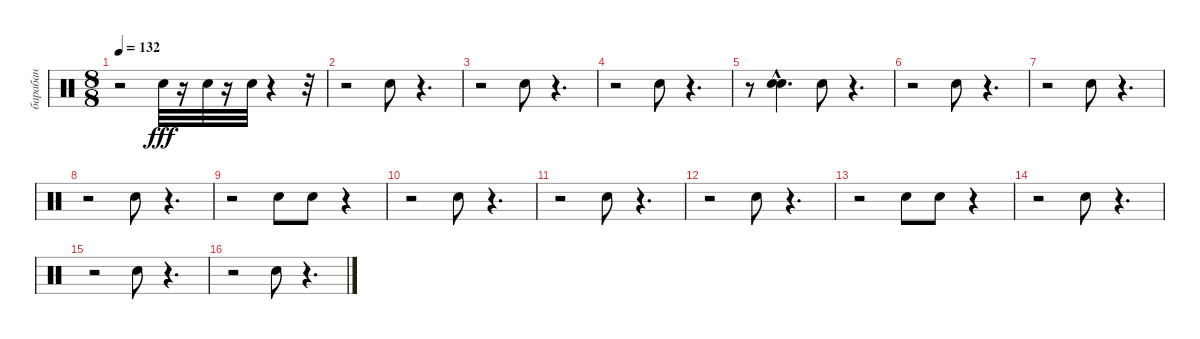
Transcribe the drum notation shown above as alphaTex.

\track ("барабан" "барабан") {instrument percussion}
\staff {score}
\articulation defaults
\ts (8 8)
\tempo 132
\clef neutral
\ks c
r.2{dy fff} "Snare (hit) 2".32 r.16 "Snare (hit) 2".32 r.16 "Snare (hit) 2".32 r.4 r.32 |
r.2 "Snare (hit) 2".8 r.4{d} |
r.2 "Snare (hit) 2".8 r.4{d} |
r.2 "Snare (hit) 2".8 r.4{d} |
r.8 ("Snare (hit) 2"{hac} "Snare (hit) 2").4{d} "Snare (hit) 2".8 r.4{d} |
r.2 "Snare (hit) 2".8 r.4{d} |
r.2 "Snare (hit) 2".8 r.4{d} |
r.2 "Snare (hit) 2".8 r.4{d} |
r.2 "Snare (hit) 2".8 "Snare (hit) 2".8 r.4 |
r.2 "Snare (hit) 2".8 r.4{d} |
r.2 "Snare (hit) 2".8 r.4{d} |
r.2 "Snare (hit) 2".8 r.4{d} |
r.2 "Snare (hit) 2".8 "Snare (hit) 2".8 r.4 |
r.2 "Snare (hit) 2".8 r.4{d} |
r.2 "Snare (hit) 2".8 r.4{d} |
r.2 "Snare (hit) 2".8 r.4{d}
